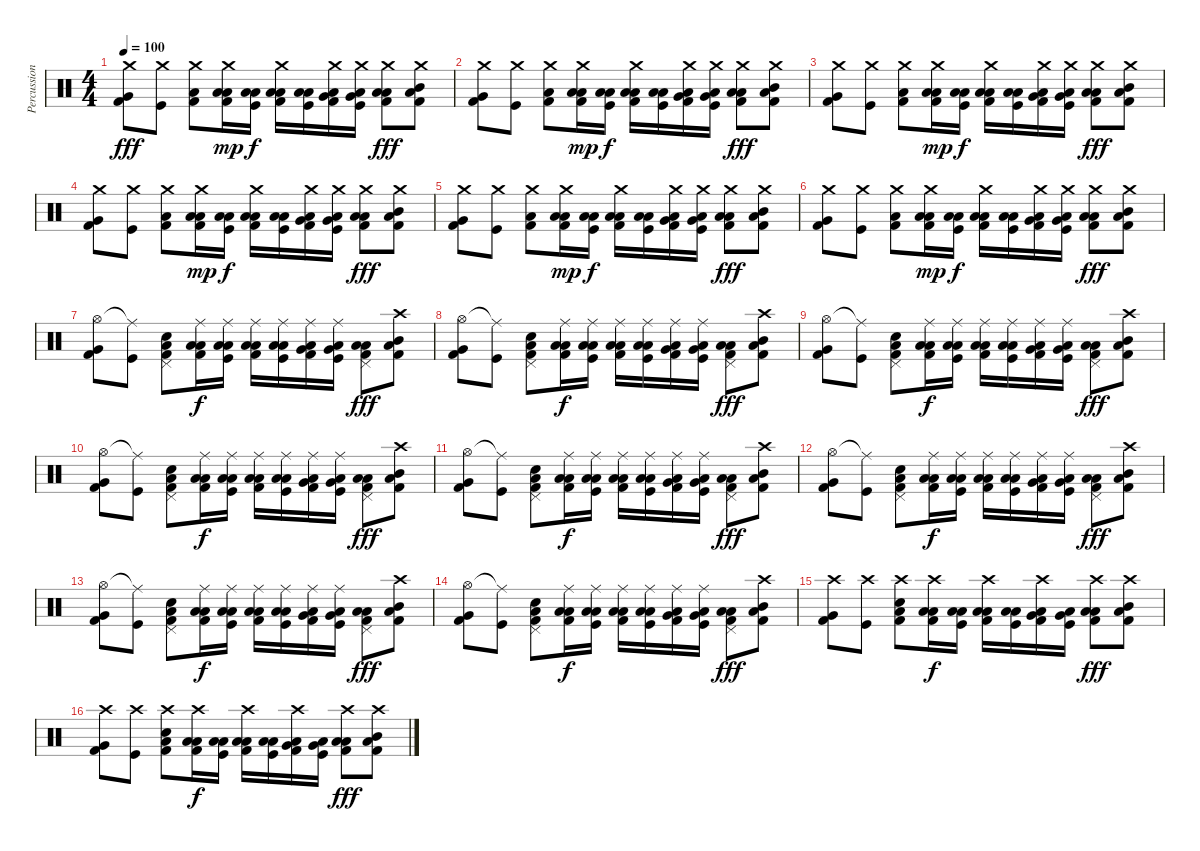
\track ("Percussion" "Percussion") {instrument percussion}
\staff {score}
\articulation defaults
\ts (4 4)
\tempo 100
\clef neutral
\ks c
("Crash medium (hit)" "Kick (hit) 2" "Very Low Tom (hit)").8{dy fff} ("Crash medium (hit)" "Kick (hit)").8 ("Crash medium (hit)" "Kick (hit) 2" "Low Floor Tom (hit)").8 ("Crash medium (hit)" "Kick (hit) 2" "Low Floor Tom (hit)" "Low Tom (hit)").16{dy mp} ("Kick (hit)" "Low Floor Tom (hit)" "Low Tom (hit)").16{dy f} ("Crash medium (hit)" "Kick (hit) 2" "Low Floor Tom (hit)" "Low Tom (hit)").16 ("Kick (hit)" "Low Floor Tom (hit)" "Low Tom (hit)").16 ("Crash medium (hit)" "Kick (hit) 2" "Low Floor Tom (hit)" "Very Low Tom (hit)").16 ("Crash medium (hit)" "Kick (hit)" "Low Floor Tom (hit)" "Very Low Tom (hit)").16 ("Crash medium (hit)" "Kick (hit) 2" "Low Floor Tom (hit)" "Low Floor Tom (hit)").8{dy fff} ("Crash medium (hit)" "Kick (hit) 2" "Low Floor Tom (hit)" "Mid Tom (hit)").8 |
("Crash medium (hit)" "Kick (hit) 2" "Very Low Tom (hit)").8 ("Crash medium (hit)" "Kick (hit)").8 ("Crash medium (hit)" "Kick (hit) 2" "Low Floor Tom (hit)").8 ("Crash medium (hit)" "Kick (hit) 2" "Low Floor Tom (hit)" "Low Tom (hit)").16{dy mp} ("Kick (hit)" "Low Floor Tom (hit)" "Low Tom (hit)").16{dy f} ("Crash medium (hit)" "Kick (hit) 2" "Low Floor Tom (hit)" "Low Tom (hit)").16 ("Kick (hit)" "Low Floor Tom (hit)" "Low Tom (hit)").16 ("Crash medium (hit)" "Kick (hit) 2" "Low Floor Tom (hit)" "Very Low Tom (hit)").16 ("Crash medium (hit)" "Kick (hit)" "Low Floor Tom (hit)" "Very Low Tom (hit)").16 ("Crash medium (hit)" "Kick (hit) 2" "Low Floor Tom (hit)" "Low Floor Tom (hit)").8{dy fff} ("Crash medium (hit)" "Kick (hit) 2" "Low Floor Tom (hit)" "Mid Tom (hit)").8 |
("Crash medium (hit)" "Kick (hit) 2" "Very Low Tom (hit)").8 ("Crash medium (hit)" "Kick (hit)").8 ("Crash medium (hit)" "Kick (hit) 2" "Low Floor Tom (hit)").8 ("Crash medium (hit)" "Kick (hit) 2" "Low Floor Tom (hit)" "Low Tom (hit)").16{dy mp} ("Kick (hit)" "Low Floor Tom (hit)" "Low Tom (hit)").16{dy f} ("Crash medium (hit)" "Kick (hit) 2" "Low Floor Tom (hit)" "Low Tom (hit)").16 ("Kick (hit)" "Low Floor Tom (hit)" "Low Tom (hit)").16 ("Crash medium (hit)" "Kick (hit) 2" "Low Floor Tom (hit)" "Very Low Tom (hit)").16 ("Crash medium (hit)" "Kick (hit)" "Low Floor Tom (hit)" "Very Low Tom (hit)").16 ("Crash medium (hit)" "Kick (hit) 2" "Low Floor Tom (hit)" "Low Floor Tom (hit)").8{dy fff} ("Crash medium (hit)" "Kick (hit) 2" "Low Floor Tom (hit)" "Mid Tom (hit)").8 |
("Crash medium (hit)" "Kick (hit) 2" "Very Low Tom (hit)").8 ("Crash medium (hit)" "Kick (hit)").8 ("Crash medium (hit)" "Kick (hit) 2" "Low Floor Tom (hit)").8 ("Crash medium (hit)" "Kick (hit) 2" "Low Floor Tom (hit)" "Low Tom (hit)").16{dy mp} ("Kick (hit)" "Low Floor Tom (hit)" "Low Tom (hit)").16{dy f} ("Crash medium (hit)" "Kick (hit) 2" "Low Floor Tom (hit)" "Low Tom (hit)").16 ("Kick (hit)" "Low Floor Tom (hit)" "Low Tom (hit)").16 ("Crash medium (hit)" "Kick (hit) 2" "Low Floor Tom (hit)" "Very Low Tom (hit)").16 ("Crash medium (hit)" "Kick (hit)" "Low Floor Tom (hit)" "Very Low Tom (hit)").16 ("Crash medium (hit)" "Kick (hit) 2" "Low Floor Tom (hit)" "Low Floor Tom (hit)").8{dy fff} ("Crash medium (hit)" "Kick (hit) 2" "Low Floor Tom (hit)" "Mid Tom (hit)").8 |
("Crash medium (hit)" "Kick (hit) 2" "Very Low Tom (hit)").8 ("Crash medium (hit)" "Kick (hit)").8 ("Crash medium (hit)" "Kick (hit) 2" "Low Floor Tom (hit)").8 ("Crash medium (hit)" "Kick (hit) 2" "Low Floor Tom (hit)" "Low Tom (hit)").16{dy mp} ("Kick (hit)" "Low Floor Tom (hit)" "Low Tom (hit)").16{dy f} ("Crash medium (hit)" "Kick (hit) 2" "Low Floor Tom (hit)" "Low Tom (hit)").16 ("Kick (hit)" "Low Floor Tom (hit)" "Low Tom (hit)").16 ("Crash medium (hit)" "Kick (hit) 2" "Low Floor Tom (hit)" "Very Low Tom (hit)").16 ("Crash medium (hit)" "Kick (hit)" "Low Floor Tom (hit)" "Very Low Tom (hit)").16 ("Crash medium (hit)" "Kick (hit) 2" "Low Floor Tom (hit)" "Low Floor Tom (hit)").8{dy fff} ("Crash medium (hit)" "Kick (hit) 2" "Low Floor Tom (hit)" "Mid Tom (hit)").8 |
("Crash medium (hit)" "Kick (hit) 2" "Very Low Tom (hit)").8 ("Crash medium (hit)" "Kick (hit)").8 ("Crash medium (hit)" "Kick (hit) 2" "Low Floor Tom (hit)").8 ("Crash medium (hit)" "Kick (hit) 2" "Low Floor Tom (hit)" "Low Tom (hit)").16{dy mp} ("Kick (hit)" "Low Floor Tom (hit)" "Low Tom (hit)").16{dy f} ("Crash medium (hit)" "Kick (hit) 2" "Low Floor Tom (hit)" "Low Tom (hit)").16 ("Kick (hit)" "Low Floor Tom (hit)" "Low Tom (hit)").16 ("Crash medium (hit)" "Kick (hit) 2" "Low Floor Tom (hit)" "Very Low Tom (hit)").16 ("Crash medium (hit)" "Kick (hit)" "Low Floor Tom (hit)" "Very Low Tom (hit)").16 ("Crash medium (hit)" "Kick (hit) 2" "Low Floor Tom (hit)" "Low Floor Tom (hit)").8{dy fff} ("Crash medium (hit)" "Kick (hit) 2" "Low Floor Tom (hit)" "Mid Tom (hit)").8 |
("Hi-Hat (open)" "Kick (hit) 2" "Very Low Tom (hit)").8 ("Ride (middle)"{t} "Kick (hit)").8 ("Pedal Hi-Hat (hit)" "Kick (hit) 2" "Low Floor Tom (hit)" "Snare (hit) 2").8 ("Ride (middle)" "Kick (hit) 2" "Low Floor Tom (hit)" "Low Tom (hit)").16{dy f} ("Ride (middle)" "Kick (hit)" "Low Floor Tom (hit)" "Low Tom (hit)").16 ("Ride (middle)" "Kick (hit) 2" "Low Floor Tom (hit)" "Low Tom (hit)").16 ("Ride (middle)" "Kick (hit)" "Low Floor Tom (hit)" "Low Tom (hit)").16 ("Ride (middle)" "Kick (hit) 2" "Low Floor Tom (hit)" "Very Low Tom (hit)").16 ("Ride (middle)" "Kick (hit)" "Low Floor Tom (hit)" "Very Low Tom (hit)").16 ("Pedal Hi-Hat (hit)" "Kick (hit) 2" "Low Floor Tom (hit)" "Low Floor Tom (hit)").8{dy fff} ("Crash high (hit)" "Kick (hit) 2" "Low Floor Tom (hit)" "Mid Tom (hit)").8 |
("Hi-Hat (open)" "Kick (hit) 2" "Very Low Tom (hit)").8 ("Ride (middle)"{t} "Kick (hit)").8 ("Pedal Hi-Hat (hit)" "Kick (hit) 2" "Low Floor Tom (hit)" "Snare (hit) 2").8 ("Ride (middle)" "Kick (hit) 2" "Low Floor Tom (hit)" "Low Tom (hit)").16{dy f} ("Ride (middle)" "Kick (hit)" "Low Floor Tom (hit)" "Low Tom (hit)").16 ("Ride (middle)" "Kick (hit) 2" "Low Floor Tom (hit)" "Low Tom (hit)").16 ("Ride (middle)" "Kick (hit)" "Low Floor Tom (hit)" "Low Tom (hit)").16 ("Ride (middle)" "Kick (hit) 2" "Low Floor Tom (hit)" "Very Low Tom (hit)").16 ("Ride (middle)" "Kick (hit)" "Low Floor Tom (hit)" "Very Low Tom (hit)").16 ("Pedal Hi-Hat (hit)" "Kick (hit) 2" "Low Floor Tom (hit)" "Low Floor Tom (hit)").8{dy fff} ("Crash high (hit)" "Kick (hit) 2" "Low Floor Tom (hit)" "Mid Tom (hit)").8 |
("Hi-Hat (open)" "Kick (hit) 2" "Very Low Tom (hit)").8 ("Ride (middle)"{t} "Kick (hit)").8 ("Pedal Hi-Hat (hit)" "Kick (hit) 2" "Low Floor Tom (hit)" "Snare (hit) 2").8 ("Ride (middle)" "Kick (hit) 2" "Low Floor Tom (hit)" "Low Tom (hit)").16{dy f} ("Ride (middle)" "Kick (hit)" "Low Floor Tom (hit)" "Low Tom (hit)").16 ("Ride (middle)" "Kick (hit) 2" "Low Floor Tom (hit)" "Low Tom (hit)").16 ("Ride (middle)" "Kick (hit)" "Low Floor Tom (hit)" "Low Tom (hit)").16 ("Ride (middle)" "Kick (hit) 2" "Low Floor Tom (hit)" "Very Low Tom (hit)").16 ("Ride (middle)" "Kick (hit)" "Low Floor Tom (hit)" "Very Low Tom (hit)").16 ("Pedal Hi-Hat (hit)" "Kick (hit) 2" "Low Floor Tom (hit)" "Low Floor Tom (hit)").8{dy fff} ("Crash high (hit)" "Kick (hit) 2" "Low Floor Tom (hit)" "Mid Tom (hit)").8 |
("Hi-Hat (open)" "Kick (hit) 2" "Very Low Tom (hit)").8 ("Ride (middle)"{t} "Kick (hit)").8 ("Pedal Hi-Hat (hit)" "Kick (hit) 2" "Low Floor Tom (hit)" "Snare (hit) 2").8 ("Ride (middle)" "Kick (hit) 2" "Low Floor Tom (hit)" "Low Tom (hit)").16{dy f} ("Ride (middle)" "Kick (hit)" "Low Floor Tom (hit)" "Low Tom (hit)").16 ("Ride (middle)" "Kick (hit) 2" "Low Floor Tom (hit)" "Low Tom (hit)").16 ("Ride (middle)" "Kick (hit)" "Low Floor Tom (hit)" "Low Tom (hit)").16 ("Ride (middle)" "Kick (hit) 2" "Low Floor Tom (hit)" "Very Low Tom (hit)").16 ("Ride (middle)" "Kick (hit)" "Low Floor Tom (hit)" "Very Low Tom (hit)").16 ("Pedal Hi-Hat (hit)" "Kick (hit) 2" "Low Floor Tom (hit)" "Low Floor Tom (hit)").8{dy fff} ("Crash high (hit)" "Kick (hit) 2" "Low Floor Tom (hit)" "Mid Tom (hit)").8 |
("Hi-Hat (open)" "Kick (hit) 2" "Very Low Tom (hit)").8 ("Ride (middle)"{t} "Kick (hit)").8 ("Pedal Hi-Hat (hit)" "Kick (hit) 2" "Low Floor Tom (hit)" "Snare (hit) 2").8 ("Ride (middle)" "Kick (hit) 2" "Low Floor Tom (hit)" "Low Tom (hit)").16{dy f} ("Ride (middle)" "Kick (hit)" "Low Floor Tom (hit)" "Low Tom (hit)").16 ("Ride (middle)" "Kick (hit) 2" "Low Floor Tom (hit)" "Low Tom (hit)").16 ("Ride (middle)" "Kick (hit)" "Low Floor Tom (hit)" "Low Tom (hit)").16 ("Ride (middle)" "Kick (hit) 2" "Low Floor Tom (hit)" "Very Low Tom (hit)").16 ("Ride (middle)" "Kick (hit)" "Low Floor Tom (hit)" "Very Low Tom (hit)").16 ("Pedal Hi-Hat (hit)" "Kick (hit) 2" "Low Floor Tom (hit)" "Low Floor Tom (hit)").8{dy fff} ("Crash high (hit)" "Kick (hit) 2" "Low Floor Tom (hit)" "Mid Tom (hit)").8 |
("Hi-Hat (open)" "Kick (hit) 2" "Very Low Tom (hit)").8 ("Ride (middle)"{t} "Kick (hit)").8 ("Pedal Hi-Hat (hit)" "Kick (hit) 2" "Low Floor Tom (hit)" "Snare (hit) 2").8 ("Ride (middle)" "Kick (hit) 2" "Low Floor Tom (hit)" "Low Tom (hit)").16{dy f} ("Ride (middle)" "Kick (hit)" "Low Floor Tom (hit)" "Low Tom (hit)").16 ("Ride (middle)" "Kick (hit) 2" "Low Floor Tom (hit)" "Low Tom (hit)").16 ("Ride (middle)" "Kick (hit)" "Low Floor Tom (hit)" "Low Tom (hit)").16 ("Ride (middle)" "Kick (hit) 2" "Low Floor Tom (hit)" "Very Low Tom (hit)").16 ("Ride (middle)" "Kick (hit)" "Low Floor Tom (hit)" "Very Low Tom (hit)").16 ("Pedal Hi-Hat (hit)" "Kick (hit) 2" "Low Floor Tom (hit)" "Low Floor Tom (hit)").8{dy fff} ("Crash high (hit)" "Kick (hit) 2" "Low Floor Tom (hit)" "Mid Tom (hit)").8 |
("Hi-Hat (open)" "Kick (hit) 2" "Very Low Tom (hit)").8 ("Ride (middle)"{t} "Kick (hit)").8 ("Pedal Hi-Hat (hit)" "Kick (hit) 2" "Low Floor Tom (hit)" "Snare (hit) 2").8 ("Ride (middle)" "Kick (hit) 2" "Low Floor Tom (hit)" "Low Tom (hit)").16{dy f} ("Ride (middle)" "Kick (hit)" "Low Floor Tom (hit)" "Low Tom (hit)").16 ("Ride (middle)" "Kick (hit) 2" "Low Floor Tom (hit)" "Low Tom (hit)").16 ("Ride (middle)" "Kick (hit)" "Low Floor Tom (hit)" "Low Tom (hit)").16 ("Ride (middle)" "Kick (hit) 2" "Low Floor Tom (hit)" "Very Low Tom (hit)").16 ("Ride (middle)" "Kick (hit)" "Low Floor Tom (hit)" "Very Low Tom (hit)").16 ("Pedal Hi-Hat (hit)" "Kick (hit) 2" "Low Floor Tom (hit)" "Low Floor Tom (hit)").8{dy fff} ("Crash high (hit)" "Kick (hit) 2" "Low Floor Tom (hit)" "Mid Tom (hit)").8 |
("Hi-Hat (open)" "Kick (hit) 2" "Very Low Tom (hit)").8 ("Ride (middle)"{t} "Kick (hit)").8 ("Pedal Hi-Hat (hit)" "Kick (hit) 2" "Low Floor Tom (hit)" "Snare (hit) 2").8 ("Ride (middle)" "Kick (hit) 2" "Low Floor Tom (hit)" "Low Tom (hit)").16{dy f} ("Ride (middle)" "Kick (hit)" "Low Floor Tom (hit)" "Low Tom (hit)").16 ("Ride (middle)" "Kick (hit) 2" "Low Floor Tom (hit)" "Low Tom (hit)").16 ("Ride (middle)" "Kick (hit)" "Low Floor Tom (hit)" "Low Tom (hit)").16 ("Ride (middle)" "Kick (hit) 2" "Low Floor Tom (hit)" "Very Low Tom (hit)").16 ("Ride (middle)" "Kick (hit)" "Low Floor Tom (hit)" "Very Low Tom (hit)").16 ("Pedal Hi-Hat (hit)" "Kick (hit) 2" "Low Floor Tom (hit)" "Low Floor Tom (hit)").8{dy fff} ("Crash high (hit)" "Kick (hit) 2" "Low Floor Tom (hit)" "Mid Tom (hit)").8 |
("Crash high (hit)" "Kick (hit) 2" "Very Low Tom (hit)").8 ("Crash high (hit)" "Kick (hit)").8 ("Crash high (hit)" "Kick (hit) 2" "Low Floor Tom (hit)" "Snare (hit) 2").8 ("Crash high (hit)" "Kick (hit) 2" "Low Floor Tom (hit)" "Low Tom (hit)").16{dy f} ("Kick (hit)" "Low Floor Tom (hit)" "Low Tom (hit)").16 ("Crash high (hit)" "Kick (hit) 2" "Low Floor Tom (hit)" "Low Tom (hit)").16 ("Kick (hit)" "Low Floor Tom (hit)" "Low Tom (hit)").16 ("Crash high (hit)" "Kick (hit) 2" "Low Floor Tom (hit)" "Very Low Tom (hit)").16 ("Kick (hit)" "Low Floor Tom (hit)" "Very Low Tom (hit)").16 ("Crash high (hit)" "Kick (hit) 2" "Low Floor Tom (hit)" "Low Floor Tom (hit)").8{dy fff} ("Crash high (hit)" "Kick (hit) 2" "Low Floor Tom (hit)" "Mid Tom (hit)").8 |
("Crash high (hit)" "Kick (hit) 2" "Very Low Tom (hit)").8 ("Crash high (hit)" "Kick (hit)").8 ("Crash high (hit)" "Kick (hit) 2" "Low Floor Tom (hit)" "Snare (hit) 2").8 ("Crash high (hit)" "Kick (hit) 2" "Low Floor Tom (hit)" "Low Tom (hit)").16{dy f} ("Kick (hit)" "Low Floor Tom (hit)" "Low Tom (hit)").16 ("Crash high (hit)" "Kick (hit) 2" "Low Floor Tom (hit)" "Low Tom (hit)").16 ("Kick (hit)" "Low Floor Tom (hit)" "Low Tom (hit)").16 ("Crash high (hit)" "Kick (hit) 2" "Low Floor Tom (hit)" "Very Low Tom (hit)").16 ("Kick (hit)" "Low Floor Tom (hit)" "Very Low Tom (hit)").16 ("Crash high (hit)" "Kick (hit) 2" "Low Floor Tom (hit)" "Low Floor Tom (hit)").8{dy fff} ("Crash high (hit)" "Kick (hit) 2" "Low Floor Tom (hit)" "Mid Tom (hit)").8
